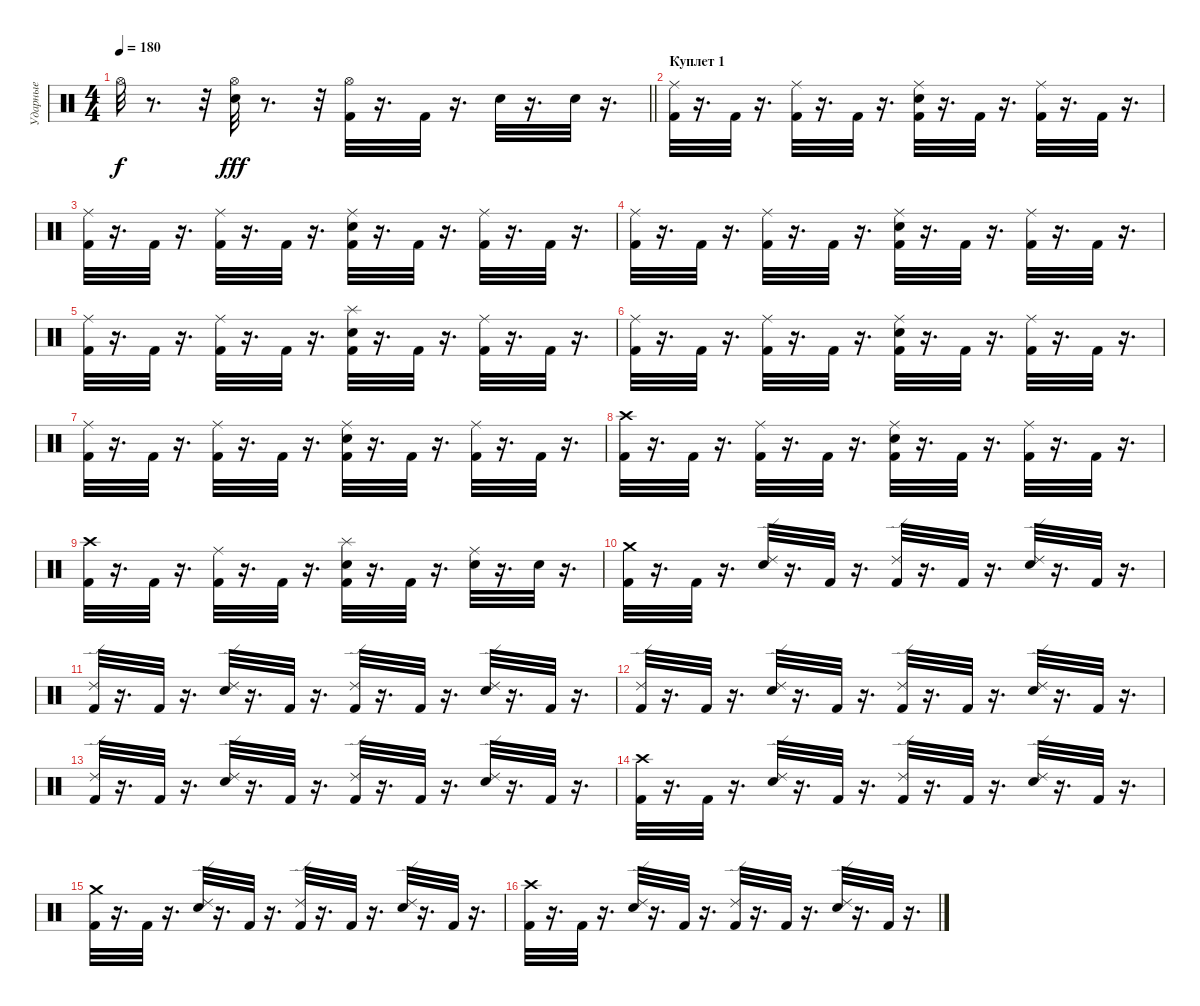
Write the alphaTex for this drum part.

\track ("Ударные" "Ударные") {instrument percussion}
\staff {score}
\articulation defaults
\ts (4 4)
\tempo 180
\clef neutral
\barLineRight lightlight
\ks c "Hi-Hat (open)".32{dy f}
r.8{d} r.32 ("Hi-Hat (open)" "Snare (hit) 2").32{dy fff} r.8{d} r.32 ("Kick (hit) 2" "Hi-Hat (open)").32 r.16{d} "Kick (hit) 2".32 r.16{d} "Snare (hit) 2".32 r.16{d} "Snare (hit) 2".32 r.16{d} |
\section ("" "Куплет 1")
("Kick (hit) 2" "Ride (middle)").32 r.16{d} "Kick (hit) 2".32 r.16{d} ("Ride (middle)" "Kick (hit) 2").32 r.16{d} "Kick (hit) 2".32 r.16{d} ("Kick (hit) 2" "Ride (middle)" "Snare (hit) 2").32 r.16{d} "Kick (hit) 2".32 r.16{d} ("Ride (middle)" "Kick (hit) 2").32 r.16{d} "Kick (hit) 2".32 r.16{d} |
("Kick (hit) 2" "Ride (middle)").32 r.16{d} "Kick (hit) 2".32 r.16{d} ("Kick (hit) 2" "Ride (middle)").32 r.16{d} "Kick (hit) 2".32 r.16{d} ("Kick (hit) 2" "Ride (middle)" "Snare (hit) 2").32 r.16{d} "Kick (hit) 2".32 r.16{d} ("Ride (middle)" "Kick (hit) 2").32 r.16{d} "Kick (hit) 2".32 r.16{d} |
("Kick (hit) 2" "Ride (middle)").32 r.16{d} "Kick (hit) 2".32 r.16{d} ("Ride (middle)" "Kick (hit) 2").32 r.16{d} "Kick (hit) 2".32 r.16{d} ("Snare (hit) 2" "Kick (hit) 2" "Ride (middle)").32 r.16{d} "Kick (hit) 2".32 r.16{d} ("Kick (hit) 2" "Ride (middle)").32 r.16{d} "Kick (hit) 2".32 r.16{d} |
("Ride (middle)" "Kick (hit) 2").32 r.16{d} "Kick (hit) 2".32 r.16{d} ("Ride (middle)" "Kick (hit) 2").32 r.16{d} "Kick (hit) 2".32 r.16{d} ("Kick (hit) 2" "Splash (hit)" "Snare (hit) 2").32 r.16{d} "Kick (hit) 2".32 r.16{d} ("Ride (middle)" "Kick (hit) 2").32 r.16{d} "Kick (hit) 2".32 r.16{d} |
("Ride (middle)" "Kick (hit) 2").32 r.16{d} "Kick (hit) 2".32 r.16{d} ("Ride (middle)" "Kick (hit) 2").32 r.16{d} "Kick (hit) 2".32 r.16{d} ("Snare (hit) 2" "Ride (middle)" "Kick (hit) 2").32 r.16{d} "Kick (hit) 2".32 r.16{d} ("Ride (middle)" "Kick (hit) 2").32 r.16{d} "Kick (hit) 2".32 r.16{d} |
("Ride (middle)" "Kick (hit) 2").32 r.16{d} "Kick (hit) 2".32 r.16{d} ("Kick (hit) 2" "Ride (middle)").32 r.16{d} "Kick (hit) 2".32 r.16{d} ("Kick (hit) 2" "Snare (hit) 2" "Ride (middle)").32 r.16{d} "Kick (hit) 2".32 r.16{d} ("Kick (hit) 2" "Ride (middle)").32 r.16{d} "Kick (hit) 2".32 r.16{d} |
("Kick (hit) 2" "Crash high (hit)").32 r.16{d} "Kick (hit) 2".32 r.16{d} ("Ride (middle)" "Kick (hit) 2").32 r.16{d} "Kick (hit) 2".32 r.16{d} ("Snare (hit) 2" "Kick (hit) 2" "Ride (middle)").32 r.16{d} "Kick (hit) 2".32 r.16{d} ("Kick (hit) 2" "Ride (middle)").32 r.16{d} "Kick (hit) 2".32 r.16{d} |
("Kick (hit) 2" "Crash high (hit)").32 r.16{d} "Kick (hit) 2".32 r.16{d} ("Ride (middle)" "Kick (hit) 2").32 r.16{d} "Kick (hit) 2".32 r.16{d} ("Splash (hit)" "Kick (hit) 2" "Snare (hit) 2").32 r.16{d} "Kick (hit) 2".32 r.16{d} ("Ride (middle)" "Snare (hit) 2").32 r.16{d} "Snare (hit) 2".32 r.16{d} |
("Crash medium (hit)" "Kick (hit) 2").32 r.16{d} "Kick (hit) 2".32 r.16{d} ("Snare (hit) 2" "Ride (edge) 2").32 r.16{d} "Kick (hit) 2".32 r.16{d} ("Ride (edge) 2" "Kick (hit) 2").32 r.16{d} "Kick (hit) 2".32 r.16{d} ("Snare (hit) 2" "Ride (edge) 2").32 r.16{d} "Kick (hit) 2".32 r.16{d} |
("Ride (edge) 2" "Kick (hit) 2").32 r.16{d} "Kick (hit) 2".32 r.16{d} ("Ride (edge) 2" "Snare (hit) 2").32 r.16{d} "Kick (hit) 2".32 r.16{d} ("Kick (hit) 2" "Ride (edge) 2").32 r.16{d} "Kick (hit) 2".32 r.16{d} ("Ride (edge) 2" "Snare (hit) 2").32 r.16{d} "Kick (hit) 2".32 r.16{d} |
("Ride (edge) 2" "Kick (hit) 2").32 r.16{d} "Kick (hit) 2".32 r.16{d} ("Ride (edge) 2" "Snare (hit) 2").32 r.16{d} "Kick (hit) 2".32 r.16{d} ("Ride (edge) 2" "Kick (hit) 2").32 r.16{d} "Kick (hit) 2".32 r.16{d} ("Snare (hit) 2" "Ride (edge) 2").32 r.16{d} "Kick (hit) 2".32 r.16{d} |
("Kick (hit) 2" "Ride (edge) 2").32 r.16{d} "Kick (hit) 2".32 r.16{d} ("Ride (edge) 2" "Snare (hit) 2").32 r.16{d} "Kick (hit) 2".32 r.16{d} ("Kick (hit) 2" "Ride (edge) 2").32 r.16{d} "Kick (hit) 2".32 r.16{d} ("Snare (hit) 2" "Ride (edge) 2").32 r.16{d} "Kick (hit) 2".32 r.16{d} |
("Crash high (hit)" "Kick (hit) 2").32 r.16{d} "Kick (hit) 2".32 r.16{d} ("Snare (hit) 2" "Ride (edge) 2").32 r.16{d} "Kick (hit) 2".32 r.16{d} ("Ride (edge) 2" "Kick (hit) 2").32 r.16{d} "Kick (hit) 2".32 r.16{d} ("Snare (hit) 2" "Ride (edge) 2").32 r.16{d} "Kick (hit) 2".32 r.16{d} |
("Crash medium (hit)" "Kick (hit) 2").32 r.16{d} "Kick (hit) 2".32 r.16{d} ("Ride (edge) 2" "Snare (hit) 2").32 r.16{d} "Kick (hit) 2".32 r.16{d} ("Ride (edge) 2" "Kick (hit) 2").32 r.16{d} "Kick (hit) 2".32 r.16{d} ("Snare (hit) 2" "Ride (edge) 2").32 r.16{d} "Kick (hit) 2".32 r.16{d} |
("Crash high (hit)" "Kick (hit) 2").32 r.16{d} "Kick (hit) 2".32 r.16{d} ("Snare (hit) 2" "Ride (edge) 2").32 r.16{d} "Kick (hit) 2".32 r.16{d} ("Kick (hit) 2" "Ride (edge) 2").32 r.16{d} "Kick (hit) 2".32 r.16{d} ("Ride (edge) 2" "Snare (hit) 2").32 r.16{d} "Kick (hit) 2".32 r.16{d}
